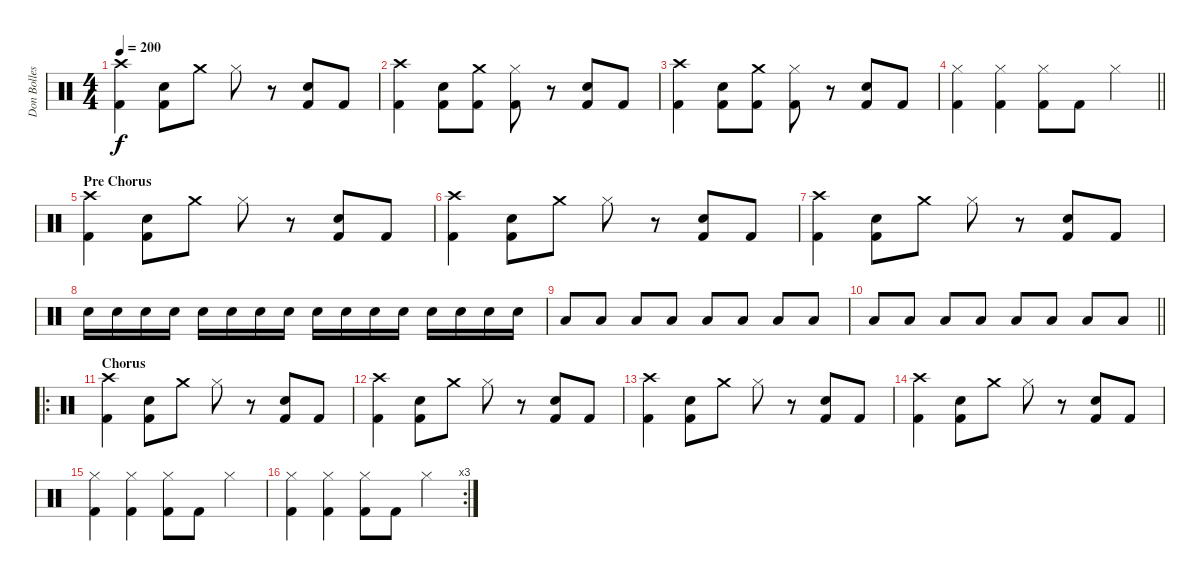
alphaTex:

\track ("Don Bolles" "Don Bolles") {instrument percussion}
\staff {score}
\articulation defaults
\ts (4 4)
\tempo 200
\clef neutral
\ks c
("Kick (hit) 2" "Crash high (hit)").4{dy f} ("Snare (hit) 2" "Kick (hit) 2").8 "Crash medium (hit)".8 "Hi-Hat (closed)".8 r.8 ("Kick (hit) 2" "Snare (hit) 2").8 "Kick (hit) 2".8 |
("Kick (hit) 2" "Crash high (hit)").4 ("Snare (hit) 2" "Kick (hit) 2").8 ("Kick (hit) 2" "Crash medium (hit)").8 ("Kick (hit) 2" "Hi-Hat (closed)").8 r.8 ("Kick (hit) 2" "Snare (hit) 2").8 "Kick (hit) 2".8 |
("Kick (hit) 2" "Crash high (hit)").4 ("Snare (hit) 2" "Kick (hit) 2").8 ("Kick (hit) 2" "Crash medium (hit)").8 ("Kick (hit) 2" "Hi-Hat (closed)").8 r.8 ("Kick (hit) 2" "Snare (hit) 2").8 "Kick (hit) 2".8 |
\barLineRight lightlight
("Kick (hit) 2" "Hi-Hat (closed)").4 ("Kick (hit) 2" "Hi-Hat (closed)").4 ("Kick (hit) 2" "Hi-Hat (closed)").8 "Kick (hit) 2".8 "Hi-Hat (closed)".4 |
\section ("" "Pre Chorus")
("Kick (hit) 2" "Crash high (hit)").4 ("Snare (hit) 2" "Kick (hit) 2").8 "Crash medium (hit)".8 "Hi-Hat (closed)".8 r.8 ("Kick (hit) 2" "Snare (hit) 2").8 "Kick (hit) 2".8 |
("Kick (hit) 2" "Crash high (hit)").4 ("Snare (hit) 2" "Kick (hit) 2").8 "Crash medium (hit)".8 "Hi-Hat (closed)".8 r.8 ("Kick (hit) 2" "Snare (hit) 2").8 "Kick (hit) 2".8 |
("Kick (hit) 2" "Crash high (hit)").4 ("Snare (hit) 2" "Kick (hit) 2").8 "Crash medium (hit)".8 "Hi-Hat (closed)".8 r.8 ("Kick (hit) 2" "Snare (hit) 2").8 "Kick (hit) 2".8 |
"Snare (hit) 2".16 "Snare (hit) 2".16 "Snare (hit) 2".16 "Snare (hit) 2".16 "Snare (hit) 2".16 "Snare (hit) 2".16 "Snare (hit) 2".16 "Snare (hit) 2".16 "Snare (hit) 2".16 "Snare (hit) 2".16 "Snare (hit) 2".16 "Snare (hit) 2".16 "Snare (hit) 2".16 "Snare (hit) 2".16 "Snare (hit) 2".16 "Snare (hit) 2".16 |
"Low Floor Tom (hit)".8 "Low Floor Tom (hit)".8 "Low Floor Tom (hit)".8 "Low Floor Tom (hit)".8 "Low Floor Tom (hit)".8 "Low Floor Tom (hit)".8 "Low Floor Tom (hit)".8 "Low Floor Tom (hit)".8 |
\barLineRight lightlight "Low Floor Tom (hit)".8 "Low Floor Tom (hit)".8 "Low Floor Tom (hit)".8 "Low Floor Tom (hit)".8 "Low Floor Tom (hit)".8 "Low Floor Tom (hit)".8 "Low Floor Tom (hit)".8 "Low Floor Tom (hit)".8
|
\ro
\section ("" "Chorus")
("Kick (hit) 2" "Crash high (hit)").4 ("Snare (hit) 2" "Kick (hit) 2").8 "Crash medium (hit)".8 "Hi-Hat (closed)".8 r.8 ("Kick (hit) 2" "Snare (hit) 2").8 "Kick (hit) 2".8 |
("Kick (hit) 2" "Crash high (hit)").4 ("Snare (hit) 2" "Kick (hit) 2").8 "Crash medium (hit)".8 "Hi-Hat (closed)".8 r.8 ("Kick (hit) 2" "Snare (hit) 2").8 "Kick (hit) 2".8 |
("Kick (hit) 2" "Crash high (hit)").4 ("Snare (hit) 2" "Kick (hit) 2").8 "Crash medium (hit)".8 "Hi-Hat (closed)".8 r.8 ("Kick (hit) 2" "Snare (hit) 2").8 "Kick (hit) 2".8 |
("Kick (hit) 2" "Crash high (hit)").4 ("Snare (hit) 2" "Kick (hit) 2").8 "Crash medium (hit)".8 "Hi-Hat (closed)".8 r.8 ("Kick (hit) 2" "Snare (hit) 2").8 "Kick (hit) 2".8 |
("Kick (hit) 2" "Hi-Hat (closed)").4 ("Kick (hit) 2" "Hi-Hat (closed)").4 ("Kick (hit) 2" "Hi-Hat (closed)").8 "Kick (hit) 2".8 "Hi-Hat (closed)".4 |
\rc 3
("Kick (hit) 2" "Hi-Hat (closed)").4 ("Kick (hit) 2" "Hi-Hat (closed)").4 ("Kick (hit) 2" "Hi-Hat (closed)").8 "Kick (hit) 2".8 "Hi-Hat (closed)".4
